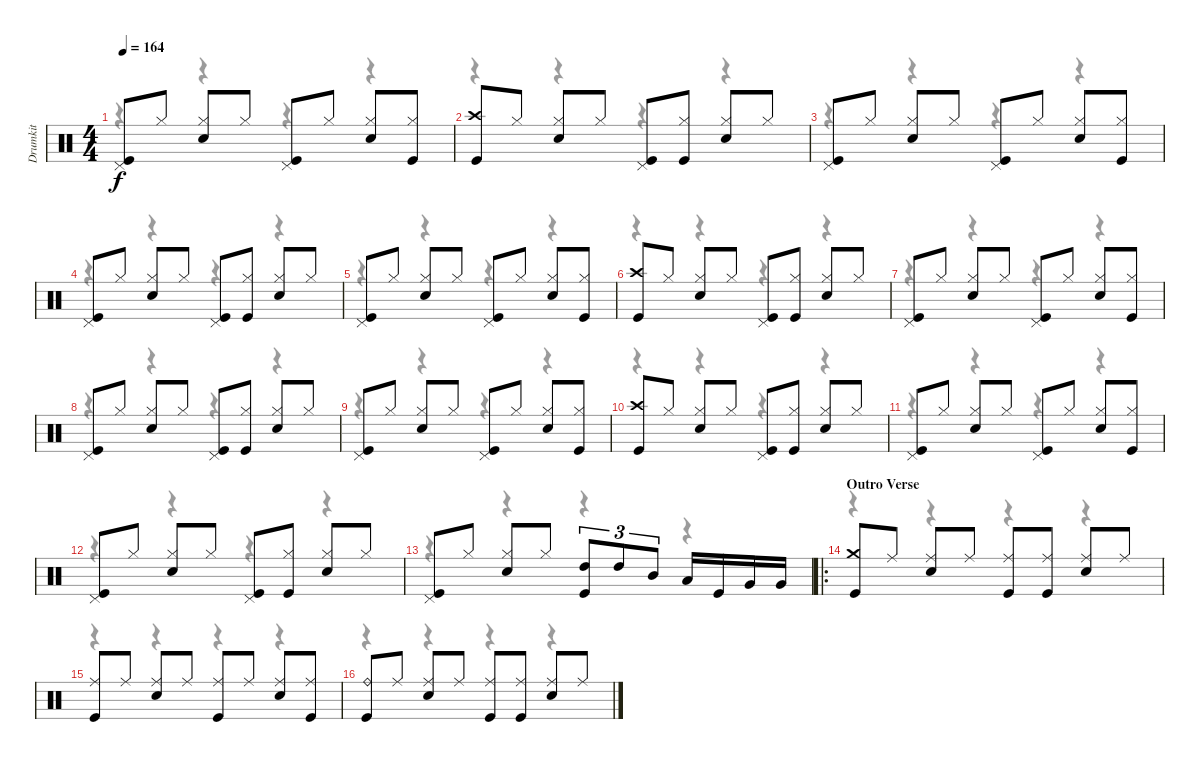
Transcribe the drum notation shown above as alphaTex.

\track ("Drumkit" "Drumkit") {instrument percussion}
\staff {score}
\articulation defaults
\voice
\ts (4 4)
\tempo 164
\clef neutral
\ks c
("Pedal Hi-Hat (hit)" "Kick (hit)").8{dy f} "Hi-Hat (closed)".8 ("Hi-Hat (closed)" "Snare (hit) 2").8 "Hi-Hat (closed)".8 ("Pedal Hi-Hat (hit)" "Kick (hit)").8 "Hi-Hat (closed)".8 ("Hi-Hat (closed)" "Snare (hit) 2").8 ("Hi-Hat (closed)" "Kick (hit)").8 |
("Crash high (hit)" "Kick (hit)").8 "Hi-Hat (closed)".8 ("Hi-Hat (closed)" "Snare (hit) 2").8 "Hi-Hat (closed)".8 ("Pedal Hi-Hat (hit)" "Kick (hit)").8 ("Hi-Hat (closed)" "Kick (hit)").8 ("Hi-Hat (closed)" "Snare (hit) 2").8 "Hi-Hat (closed)".8 |
("Pedal Hi-Hat (hit)" "Kick (hit)").8 "Hi-Hat (closed)".8 ("Hi-Hat (closed)" "Snare (hit) 2").8 "Hi-Hat (closed)".8 ("Pedal Hi-Hat (hit)" "Kick (hit)").8 "Hi-Hat (closed)".8 ("Hi-Hat (closed)" "Snare (hit) 2").8 ("Hi-Hat (closed)" "Kick (hit)").8 |
("Pedal Hi-Hat (hit)" "Kick (hit)").8 "Hi-Hat (closed)".8 ("Hi-Hat (closed)" "Snare (hit) 2").8 "Hi-Hat (closed)".8 ("Pedal Hi-Hat (hit)" "Kick (hit)").8 ("Hi-Hat (closed)" "Kick (hit)").8 ("Hi-Hat (closed)" "Snare (hit) 2").8 "Hi-Hat (closed)".8 |
("Pedal Hi-Hat (hit)" "Kick (hit)").8 "Hi-Hat (closed)".8 ("Hi-Hat (closed)" "Snare (hit) 2").8 "Hi-Hat (closed)".8 ("Pedal Hi-Hat (hit)" "Kick (hit)").8 "Hi-Hat (closed)".8 ("Hi-Hat (closed)" "Snare (hit) 2").8 ("Hi-Hat (closed)" "Kick (hit)").8 |
("Crash high (hit)" "Kick (hit)").8 "Hi-Hat (closed)".8 ("Hi-Hat (closed)" "Snare (hit) 2").8 "Hi-Hat (closed)".8 ("Pedal Hi-Hat (hit)" "Kick (hit)").8 ("Hi-Hat (closed)" "Kick (hit)").8 ("Hi-Hat (closed)" "Snare (hit) 2").8 "Hi-Hat (closed)".8 |
("Pedal Hi-Hat (hit)" "Kick (hit)").8 "Hi-Hat (closed)".8 ("Hi-Hat (closed)" "Snare (hit) 2").8 "Hi-Hat (closed)".8 ("Pedal Hi-Hat (hit)" "Kick (hit)").8 "Hi-Hat (closed)".8 ("Hi-Hat (closed)" "Snare (hit) 2").8 ("Hi-Hat (closed)" "Kick (hit)").8 |
("Pedal Hi-Hat (hit)" "Kick (hit)").8 "Hi-Hat (closed)".8 ("Hi-Hat (closed)" "Snare (hit) 2").8 "Hi-Hat (closed)".8 ("Pedal Hi-Hat (hit)" "Kick (hit)").8 ("Hi-Hat (closed)" "Kick (hit)").8 ("Hi-Hat (closed)" "Snare (hit) 2").8 "Hi-Hat (closed)".8 |
("Pedal Hi-Hat (hit)" "Kick (hit)").8 "Hi-Hat (closed)".8 ("Hi-Hat (closed)" "Snare (hit) 2").8 "Hi-Hat (closed)".8 ("Pedal Hi-Hat (hit)" "Kick (hit)").8 "Hi-Hat (closed)".8 ("Hi-Hat (closed)" "Snare (hit) 2").8 ("Hi-Hat (closed)" "Kick (hit)").8 |
("Crash high (hit)" "Kick (hit)").8 "Hi-Hat (closed)".8 ("Hi-Hat (closed)" "Snare (hit) 2").8 "Hi-Hat (closed)".8 ("Pedal Hi-Hat (hit)" "Kick (hit)").8 ("Hi-Hat (closed)" "Kick (hit)").8 ("Hi-Hat (closed)" "Snare (hit) 2").8 "Hi-Hat (closed)".8 |
("Pedal Hi-Hat (hit)" "Kick (hit)").8 "Hi-Hat (closed)".8 ("Hi-Hat (closed)" "Snare (hit) 2").8 "Hi-Hat (closed)".8 ("Pedal Hi-Hat (hit)" "Kick (hit)").8 "Hi-Hat (closed)".8 ("Hi-Hat (closed)" "Snare (hit) 2").8 ("Hi-Hat (closed)" "Kick (hit)").8 |
("Pedal Hi-Hat (hit)" "Kick (hit)").8 "Hi-Hat (closed)".8 ("Hi-Hat (closed)" "Snare (hit) 2").8 "Hi-Hat (closed)".8 ("Pedal Hi-Hat (hit)" "Kick (hit)").8 ("Hi-Hat (closed)" "Kick (hit)").8 ("Hi-Hat (closed)" "Snare (hit) 2").8 "Hi-Hat (closed)".8 |
("Pedal Hi-Hat (hit)" "Kick (hit)").8 "Hi-Hat (closed)".8 ("Hi-Hat (closed)" "Snare (hit) 2").8 "Hi-Hat (closed)".8 ("High Tom (hit)" "Kick (hit)").8{tu (3 2)} "High Tom (hit)".8{tu (3 2)} "Mid Tom (hit)".8{tu (3 2)} "Low Tom (hit)".16 "Kick (hit)".16 "Very Low Tom (hit)".16 "Very Low Tom (hit)".16 |
\ro
\section ("" "Outro Verse")
("Crash medium (hit)" "Kick (hit)").8 "Ride (middle)".8 ("Ride (middle)" "Snare (hit) 2").8 "Ride (middle)".8 ("Ride (middle)" "Kick (hit)").8 ("Ride (middle)" "Kick (hit)").8 ("Ride (middle)" "Snare (hit) 2").8 "Ride (middle)".8 |
("Ride (middle)" "Kick (hit)").8 "Ride (middle)".8 ("Ride (middle)" "Snare (hit) 2").8 "Ride (middle)".8 ("Ride (middle)" "Kick (hit)").8 "Ride (middle)".8 ("Ride (middle)" "Snare (hit) 2").8 ("Ride (middle)" "Kick (hit)").8 |
("Ride (bell)" "Kick (hit)").8 "Ride (middle)".8 ("Ride (middle)" "Snare (hit) 2").8 "Ride (middle)".8 ("Ride (middle)" "Kick (hit)").8 ("Ride (middle)" "Kick (hit)").8 ("Ride (middle)" "Snare (hit) 2").8 "Ride (middle)".8
\voice
\clef neutral
\ottava regular
\simile none
\ks c
r.4{dy f} r.4 r.4 r.4 |
r.4 r.4 r.4 r.4 |
r.4 r.4 r.4 r.4 |
r.4 r.4 r.4 r.4 |
r.4 r.4 r.4 r.4 |
r.4 r.4 r.4 r.4 |
r.4 r.4 r.4 r.4 |
r.4 r.4 r.4 r.4 |
r.4 r.4 r.4 r.4 |
r.4 r.4 r.4 r.4 |
r.4 r.4 r.4 r.4 |
r.4 r.4 r.4 r.4 |
r.4 r.4 r.4 r.4 |
r.4 r.4 r.4 r.4 |
r.4 r.4 r.4 r.4 |
r.4 r.4 r.4 r.4
